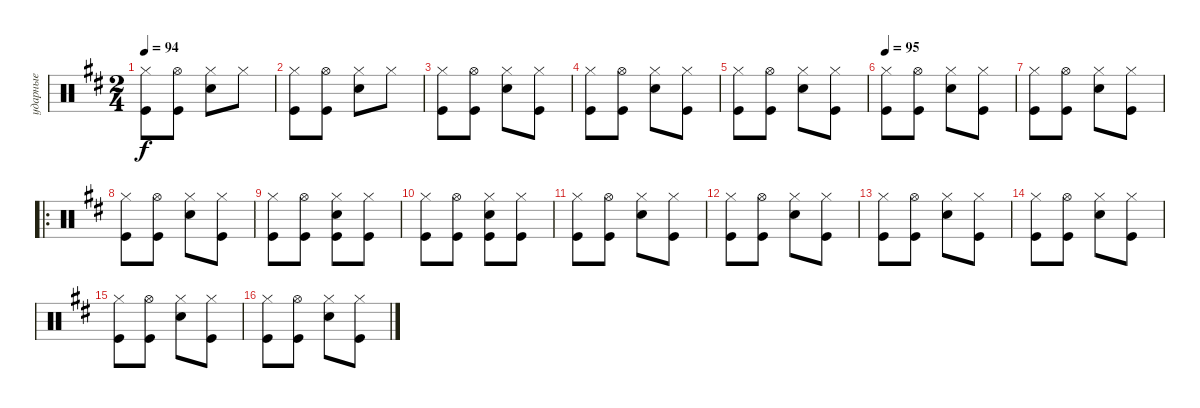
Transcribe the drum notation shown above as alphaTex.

\track ("ударные" "ударные") {instrument percussion}
\staff {score}
\articulation defaults
\ts (2 4)
\tempo 94
\clef neutral
\ks bminor
("Kick (hit)" "Hi-Hat (closed)").8{dy f} ("Kick (hit)" "Hi-Hat (open)").8 ("Snare (hit) 2" "Hi-Hat (closed)").8 "Hi-Hat (closed)".8 |
("Kick (hit)" "Hi-Hat (closed)").8 ("Kick (hit)" "Hi-Hat (open)").8 ("Snare (hit) 2" "Hi-Hat (closed)").8 "Hi-Hat (closed)".8 |
("Kick (hit)" "Hi-Hat (closed)").8 ("Kick (hit)" "Hi-Hat (open)").8 ("Snare (hit) 2" "Hi-Hat (closed)").8 ("Hi-Hat (closed)" "Kick (hit)").8 |
("Kick (hit)" "Hi-Hat (closed)").8 ("Kick (hit)" "Hi-Hat (open)").8 ("Snare (hit) 2" "Hi-Hat (closed)").8 ("Hi-Hat (closed)" "Kick (hit)").8 |
("Kick (hit)" "Hi-Hat (closed)").8 ("Kick (hit)" "Hi-Hat (open)").8 ("Snare (hit) 2" "Hi-Hat (closed)").8 ("Hi-Hat (closed)" "Kick (hit)").8 |
\tempo 95
("Kick (hit)" "Hi-Hat (closed)").8 ("Kick (hit)" "Hi-Hat (open)").8 ("Snare (hit) 2" "Hi-Hat (closed)").8 ("Hi-Hat (closed)" "Kick (hit)").8 |
("Kick (hit)" "Hi-Hat (closed)").8 ("Kick (hit)" "Hi-Hat (open)").8 ("Snare (hit) 2" "Hi-Hat (closed)").8 ("Hi-Hat (closed)" "Kick (hit)").8 |
\ro
("Kick (hit)" "Hi-Hat (closed)").8 ("Kick (hit)" "Hi-Hat (open)").8 ("Snare (hit) 2" "Hi-Hat (closed)").8 ("Hi-Hat (closed)" "Kick (hit)").8 |
("Kick (hit)" "Hi-Hat (closed)").8 ("Kick (hit)" "Hi-Hat (open)").8 ("Snare (hit) 2" "Hi-Hat (closed)" "Kick (hit)").8 ("Hi-Hat (closed)" "Kick (hit)").8 |
("Kick (hit)" "Hi-Hat (closed)").8 ("Kick (hit)" "Hi-Hat (open)").8 ("Snare (hit) 2" "Hi-Hat (closed)" "Kick (hit)").8 ("Hi-Hat (closed)" "Kick (hit)").8 |
("Kick (hit)" "Hi-Hat (closed)").8 ("Kick (hit)" "Hi-Hat (open)").8 ("Snare (hit) 2" "Hi-Hat (closed)").8 ("Hi-Hat (closed)" "Kick (hit)").8 |
("Kick (hit)" "Hi-Hat (closed)").8 ("Kick (hit)" "Hi-Hat (open)").8 ("Snare (hit) 2" "Hi-Hat (closed)").8 ("Hi-Hat (closed)" "Kick (hit)").8 |
("Kick (hit)" "Hi-Hat (closed)").8 ("Kick (hit)" "Hi-Hat (open)").8 ("Snare (hit) 2" "Hi-Hat (closed)").8 ("Hi-Hat (closed)" "Kick (hit)").8 |
("Kick (hit)" "Hi-Hat (closed)").8 ("Kick (hit)" "Hi-Hat (open)").8 ("Snare (hit) 2" "Hi-Hat (closed)").8 ("Hi-Hat (closed)" "Kick (hit)").8 |
("Kick (hit)" "Hi-Hat (closed)").8 ("Kick (hit)" "Hi-Hat (open)").8 ("Snare (hit) 2" "Hi-Hat (closed)").8 ("Hi-Hat (closed)" "Kick (hit)").8 |
("Kick (hit)" "Hi-Hat (closed)").8 ("Kick (hit)" "Hi-Hat (open)").8 ("Snare (hit) 2" "Hi-Hat (closed)").8 ("Hi-Hat (closed)" "Kick (hit)").8
